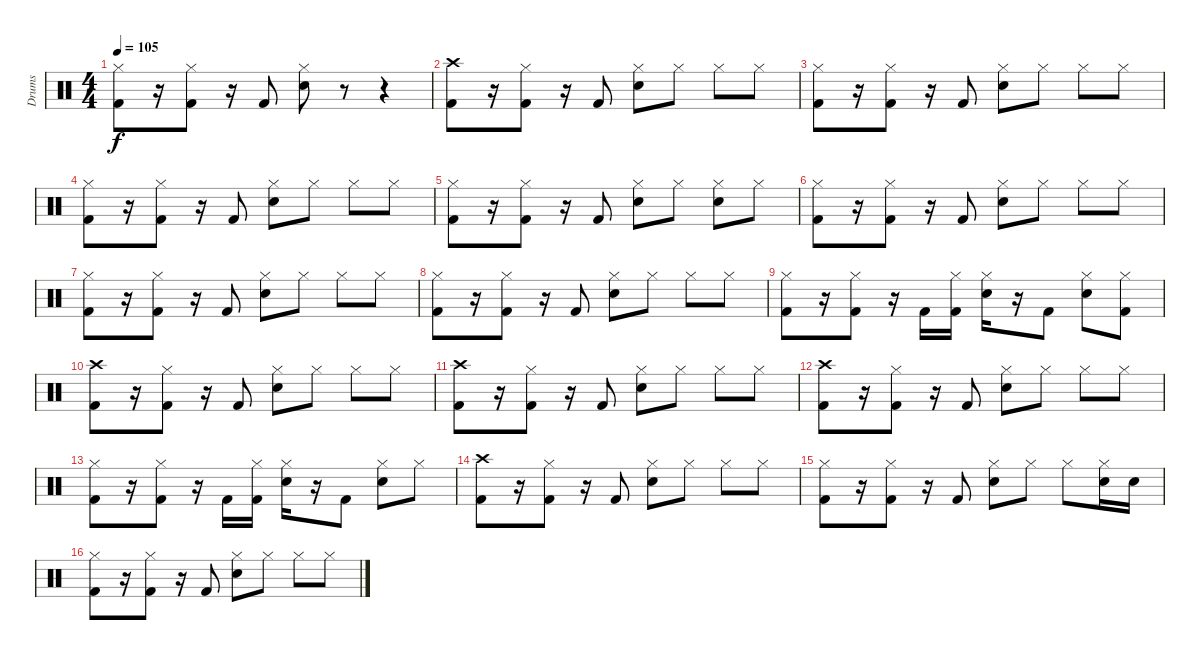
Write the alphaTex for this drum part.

\track ("Drums" "Drums") {instrument percussion}
\staff {score}
\articulation defaults
\ts (4 4)
\tempo 105
\clef neutral
\ks c
("Hi-Hat (closed)" "Kick (hit) 2").8{dy f} r.16 ("Hi-Hat (closed)" "Kick (hit) 2").8 r.16 "Kick (hit) 2".8 ("Hi-Hat (closed)" "Electric Snare (hit)").8 r.8 r.4 |
("Crash high (hit)" "Kick (hit) 2").8 r.16 ("Hi-Hat (closed)" "Kick (hit) 2").8 r.16 "Kick (hit) 2".8 ("Hi-Hat (closed)" "Electric Snare (hit)").8 "Hi-Hat (closed)".8 "Hi-Hat (closed)".8 "Hi-Hat (closed)".8 |
("Hi-Hat (closed)" "Kick (hit) 2").8 r.16 ("Hi-Hat (closed)" "Kick (hit) 2").8 r.16 "Kick (hit) 2".8 ("Hi-Hat (closed)" "Electric Snare (hit)").8 "Hi-Hat (closed)".8 "Hi-Hat (closed)".8 "Hi-Hat (closed)".8 |
("Hi-Hat (closed)" "Kick (hit) 2").8 r.16 ("Hi-Hat (closed)" "Kick (hit) 2").8 r.16 "Kick (hit) 2".8 ("Hi-Hat (closed)" "Electric Snare (hit)").8 "Hi-Hat (closed)".8 "Hi-Hat (closed)".8 "Hi-Hat (closed)".8 |
("Hi-Hat (closed)" "Kick (hit) 2").8 r.16 ("Hi-Hat (closed)" "Kick (hit) 2").8 r.16 "Kick (hit) 2".8 ("Hi-Hat (closed)" "Electric Snare (hit)").8 "Hi-Hat (closed)".8 ("Hi-Hat (closed)" "Electric Snare (hit)").8 "Hi-Hat (closed)".8 |
("Hi-Hat (closed)" "Kick (hit) 2").8 r.16 ("Hi-Hat (closed)" "Kick (hit) 2").8 r.16 "Kick (hit) 2".8 ("Hi-Hat (closed)" "Electric Snare (hit)").8 "Hi-Hat (closed)".8 "Hi-Hat (closed)".8 "Hi-Hat (closed)".8 |
("Hi-Hat (closed)" "Kick (hit) 2").8 r.16 ("Hi-Hat (closed)" "Kick (hit) 2").8 r.16 "Kick (hit) 2".8 ("Hi-Hat (closed)" "Electric Snare (hit)").8 "Hi-Hat (closed)".8 "Hi-Hat (closed)".8 "Hi-Hat (closed)".8 |
("Hi-Hat (closed)" "Kick (hit) 2").8 r.16 ("Hi-Hat (closed)" "Kick (hit) 2").8 r.16 "Kick (hit) 2".8 ("Hi-Hat (closed)" "Electric Snare (hit)").8 "Hi-Hat (closed)".8 "Hi-Hat (closed)".8 "Hi-Hat (closed)".8 |
("Hi-Hat (closed)" "Kick (hit) 2").8 r.16 ("Hi-Hat (closed)" "Kick (hit) 2").8 r.16 "Kick (hit) 2".16 ("Hi-Hat (closed)" "Kick (hit) 2").16 ("Electric Snare (hit)" "Hi-Hat (closed)").16 r.16 "Kick (hit) 2".8 ("Hi-Hat (closed)" "Electric Snare (hit)").8 ("Hi-Hat (closed)" "Kick (hit) 2").8 |
("Crash high (hit)" "Kick (hit) 2").8 r.16 ("Hi-Hat (closed)" "Kick (hit) 2").8 r.16 "Kick (hit) 2".8 ("Hi-Hat (closed)" "Electric Snare (hit)").8 "Hi-Hat (closed)".8 "Hi-Hat (closed)".8 "Hi-Hat (closed)".8 |
("Crash high (hit)" "Kick (hit) 2").8 r.16 ("Hi-Hat (closed)" "Kick (hit) 2").8 r.16 "Kick (hit) 2".8 ("Hi-Hat (closed)" "Electric Snare (hit)").8 "Hi-Hat (closed)".8 "Hi-Hat (closed)".8 "Hi-Hat (closed)".8 |
("Crash high (hit)" "Kick (hit) 2").8 r.16 ("Hi-Hat (closed)" "Kick (hit) 2").8 r.16 "Kick (hit) 2".8 ("Hi-Hat (closed)" "Electric Snare (hit)").8 "Hi-Hat (closed)".8 "Hi-Hat (closed)".8 "Hi-Hat (closed)".8 |
("Hi-Hat (closed)" "Kick (hit) 2").8 r.16 ("Hi-Hat (closed)" "Kick (hit) 2").8 r.16 "Kick (hit) 2".16 ("Hi-Hat (closed)" "Kick (hit) 2").16 ("Electric Snare (hit)" "Hi-Hat (closed)").16 r.16 "Kick (hit) 2".8 ("Hi-Hat (closed)" "Electric Snare (hit)").8 "Hi-Hat (closed)".8 |
("Crash high (hit)" "Kick (hit) 2").8 r.16 ("Hi-Hat (closed)" "Kick (hit) 2").8 r.16 "Kick (hit) 2".8 ("Hi-Hat (closed)" "Electric Snare (hit)").8 "Hi-Hat (closed)".8 "Hi-Hat (closed)".8 "Hi-Hat (closed)".8 |
("Hi-Hat (closed)" "Kick (hit) 2").8 r.16 ("Hi-Hat (closed)" "Kick (hit) 2").8 r.16 "Kick (hit) 2".8 ("Hi-Hat (closed)" "Electric Snare (hit)").8 "Hi-Hat (closed)".8 "Hi-Hat (closed)".8 ("Hi-Hat (closed)" "Electric Snare (hit)").16 "Electric Snare (hit)".16 |
("Hi-Hat (closed)" "Kick (hit) 2").8 r.16 ("Hi-Hat (closed)" "Kick (hit) 2").8 r.16 "Kick (hit) 2".8 ("Hi-Hat (closed)" "Electric Snare (hit)").8 "Hi-Hat (closed)".8 "Hi-Hat (closed)".8 "Hi-Hat (closed)".8
